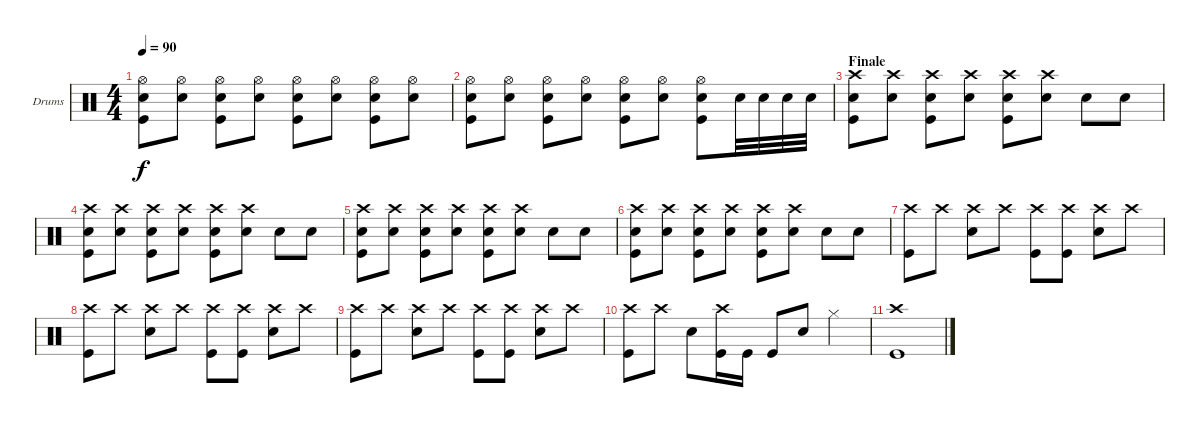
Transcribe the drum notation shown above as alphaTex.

\bracketExtendMode groupsimilarinstruments
\firstSystemTrackNameOrientation horizontal
\otherSystemsTrackNameOrientation horizontal
\track ("Drumkit" "Drums") {instrument percussion}
\staff {score}
\articulation defaults
\ts (4 4)
\tempo 90
\clef neutral
\ks c
("Hi-Hat (open)" "Snare (hit) 2" "Kick (hit)").8{dy f} ("Hi-Hat (open)" "Snare (hit) 2").8 ("Hi-Hat (open)" "Snare (hit) 2" "Kick (hit)").8 ("Hi-Hat (open)" "Snare (hit) 2").8 ("Hi-Hat (open)" "Snare (hit) 2" "Kick (hit)").8 ("Hi-Hat (open)" "Snare (hit) 2").8 ("Hi-Hat (open)" "Snare (hit) 2" "Kick (hit)").8 ("Hi-Hat (open)" "Snare (hit) 2").8 |
("Hi-Hat (open)" "Snare (hit) 2" "Kick (hit)").8 ("Hi-Hat (open)" "Snare (hit) 2").8 ("Hi-Hat (open)" "Snare (hit) 2" "Kick (hit)").8 ("Hi-Hat (open)" "Snare (hit) 2").8 ("Hi-Hat (open)" "Snare (hit) 2" "Kick (hit)").8 ("Hi-Hat (open)" "Snare (hit) 2").8 ("Hi-Hat (open)" "Snare (hit) 2" "Kick (hit)").8 "Snare (hit) 2".32 "Snare (hit) 2".32 "Snare (hit) 2".32 "Snare (hit) 2".32 |
\section ("" "Finale")
("Crash high (hit)" "Snare (hit) 2" "Kick (hit)").8 ("Crash high (hit)" "Snare (hit) 2").8 ("Crash high (hit)" "Snare (hit) 2" "Kick (hit)").8 ("Crash high (hit)" "Snare (hit) 2").8 ("Crash high (hit)" "Snare (hit) 2" "Kick (hit)").8 ("Crash high (hit)" "Snare (hit) 2").8 "Snare (hit) 2".8 "Snare (hit) 2".8 |
("Crash high (hit)" "Snare (hit) 2" "Kick (hit)").8 ("Crash high (hit)" "Snare (hit) 2").8 ("Crash high (hit)" "Snare (hit) 2" "Kick (hit)").8 ("Crash high (hit)" "Snare (hit) 2").8 ("Crash high (hit)" "Snare (hit) 2" "Kick (hit)").8 ("Crash high (hit)" "Snare (hit) 2").8 "Snare (hit) 2".8 "Snare (hit) 2".8 |
("Crash high (hit)" "Snare (hit) 2" "Kick (hit)").8 ("Crash high (hit)" "Snare (hit) 2").8 ("Crash high (hit)" "Snare (hit) 2" "Kick (hit)").8 ("Crash high (hit)" "Snare (hit) 2").8 ("Crash high (hit)" "Snare (hit) 2" "Kick (hit)").8 ("Crash high (hit)" "Snare (hit) 2").8 "Snare (hit) 2".8 "Snare (hit) 2".8 |
("Crash high (hit)" "Snare (hit) 2" "Kick (hit)").8 ("Crash high (hit)" "Snare (hit) 2").8 ("Crash high (hit)" "Snare (hit) 2" "Kick (hit)").8 ("Crash high (hit)" "Snare (hit) 2").8 ("Crash high (hit)" "Snare (hit) 2" "Kick (hit)").8 ("Crash high (hit)" "Snare (hit) 2").8 "Snare (hit) 2".8 "Snare (hit) 2".8 |
("Crash high (hit)" "Kick (hit)").8 "Crash high (hit)".8 ("Crash high (hit)" "Snare (hit) 2").8 "Crash high (hit)".8 ("Crash high (hit)" "Kick (hit)").8 ("Crash high (hit)" "Kick (hit)").8 ("Crash high (hit)" "Snare (hit) 2").8 "Crash high (hit)".8 |
("Crash high (hit)" "Kick (hit)").8 "Crash high (hit)".8 ("Crash high (hit)" "Snare (hit) 2").8 "Crash high (hit)".8 ("Crash high (hit)" "Kick (hit)").8 ("Crash high (hit)" "Kick (hit)").8 ("Crash high (hit)" "Snare (hit) 2").8 "Crash high (hit)".8 |
("Crash high (hit)" "Kick (hit)").8 "Crash high (hit)".8 ("Crash high (hit)" "Snare (hit) 2").8 "Crash high (hit)".8 ("Crash high (hit)" "Kick (hit)").8 ("Crash high (hit)" "Kick (hit)").8 ("Crash high (hit)" "Snare (hit) 2").8 "Crash high (hit)".8 |
("Crash high (hit)" "Kick (hit)").8 "Crash high (hit)".8 "Snare (hit) 2".8 ("Crash high (hit)" "Kick (hit)").16 "Kick (hit)".16 "Kick (hit)".8 "Snare (hit) 2".8 "Hi-Hat (closed)".4 |
("Crash high (hit)" "Kick (hit)").1
